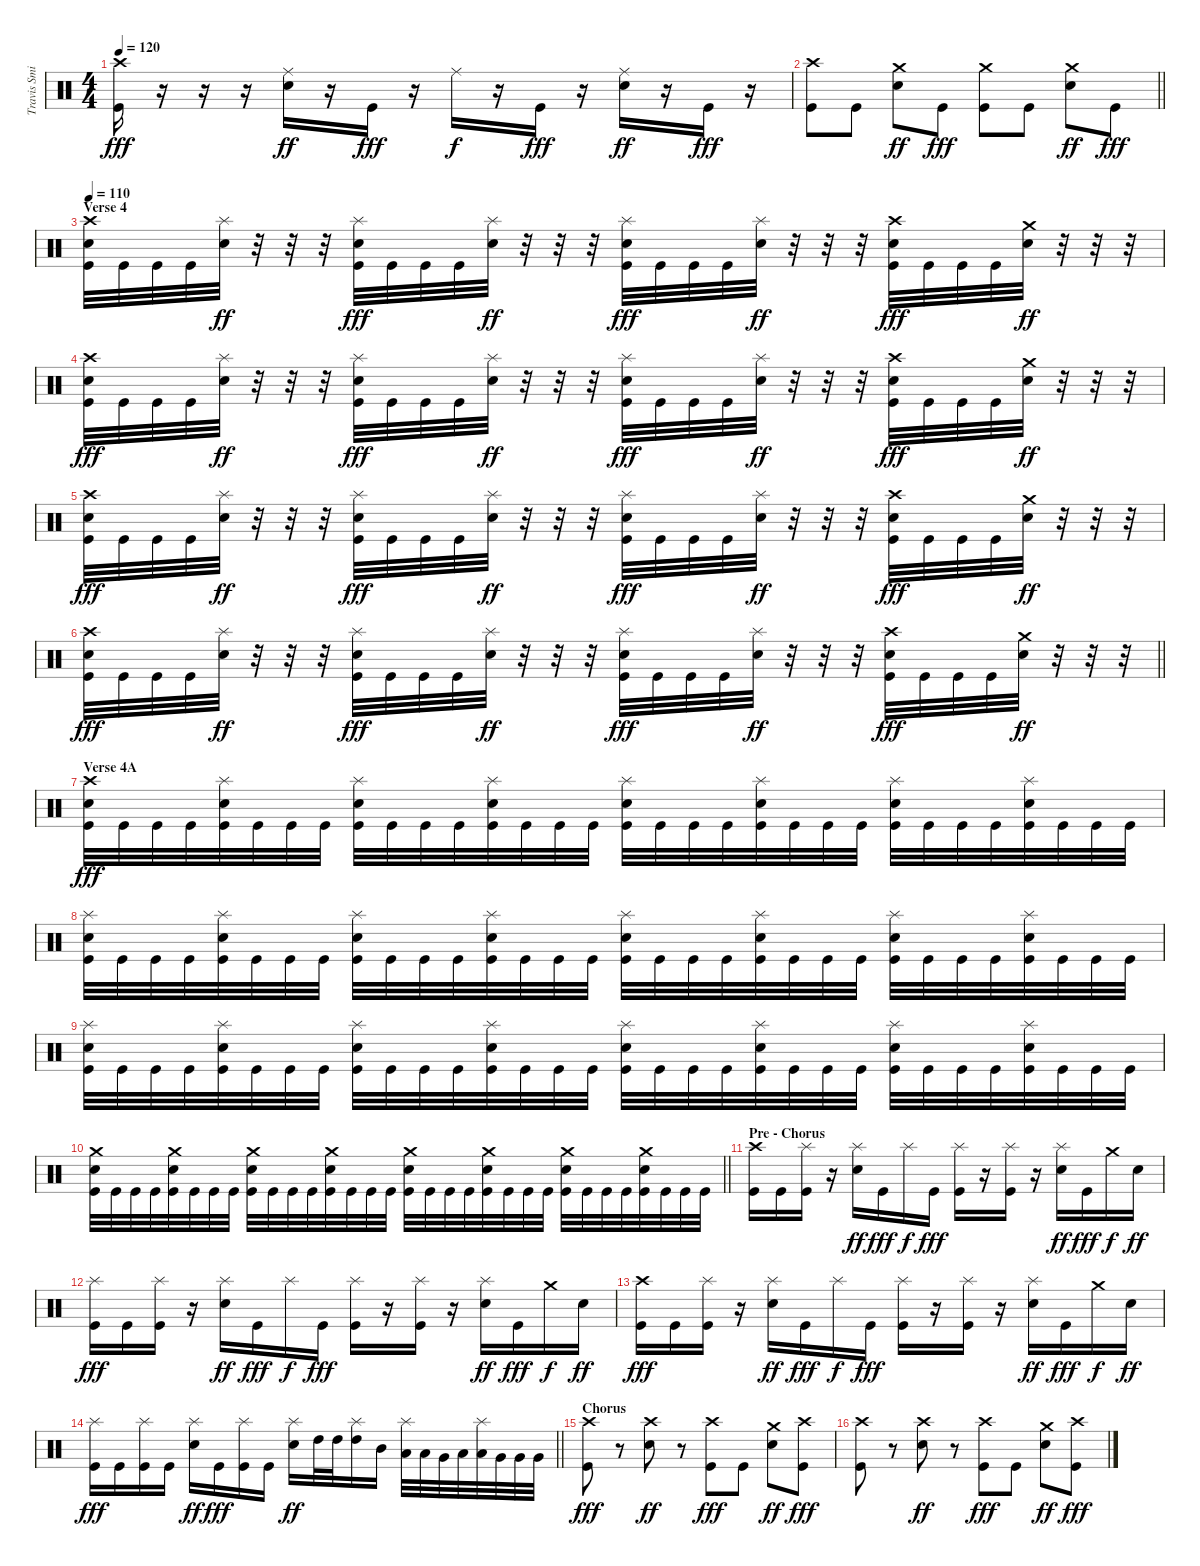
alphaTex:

\track ("Travis Smith" "Travis Smi") {instrument percussion}
\staff {score}
\articulation defaults
\ts (4 4)
\tempo 120
\clef neutral
\ks c
("Crash high (hit)" "Kick (hit)").16{dy fff} r.16 r.16 r.16 ("Ride (middle)" "Electric Snare (hit)").16{dy ff} r.16 "Kick (hit)".16{dy fff} r.16 "Ride (middle)".16{dy f} r.16 "Kick (hit)".16{dy fff} r.16 ("Ride (middle)" "Electric Snare (hit)").16{dy ff} r.16 "Kick (hit)".16{dy fff} r.16 |
\barLineRight lightlight
("Crash high (hit)" "Kick (hit)").8 "Kick (hit)".8 ("Crash medium (hit)" "Electric Snare (hit)").8{dy ff} "Kick (hit)".8{dy fff} ("Crash medium (hit)" "Kick (hit)").8 "Kick (hit)".8 ("Crash medium (hit)" "Electric Snare (hit)").8{dy ff} "Kick (hit)".8{dy fff} |
\section ("" "Verse 4")
\tempo 110
("Crash high (hit)" "Electric Snare (hit)" "Kick (hit)").32 "Kick (hit)".32 "Kick (hit)".32 "Kick (hit)".32 ("Splash (hit)" "Electric Snare (hit)").32{dy ff} r.32 r.32 r.32 ("Splash (hit)" "Electric Snare (hit)" "Kick (hit)").32{dy fff} "Kick (hit)".32 "Kick (hit)".32 "Kick (hit)".32 ("Splash (hit)" "Electric Snare (hit)").32{dy ff} r.32 r.32 r.32 ("Splash (hit)" "Electric Snare (hit)" "Kick (hit)").32{dy fff} "Kick (hit)".32 "Kick (hit)".32 "Kick (hit)".32 ("Splash (hit)" "Electric Snare (hit)").32{dy ff} r.32 r.32 r.32 ("Crash high (hit)" "Electric Snare (hit)" "Kick (hit)").32{dy fff} "Kick (hit)".32 "Kick (hit)".32 "Kick (hit)".32 ("Crash medium (hit)" "Electric Snare (hit)").32{dy ff} r.32 r.32 r.32 |
("Crash high (hit)" "Electric Snare (hit)" "Kick (hit)").32{dy fff} "Kick (hit)".32 "Kick (hit)".32 "Kick (hit)".32 ("Splash (hit)" "Electric Snare (hit)").32{dy ff} r.32 r.32 r.32 ("Splash (hit)" "Electric Snare (hit)" "Kick (hit)").32{dy fff} "Kick (hit)".32 "Kick (hit)".32 "Kick (hit)".32 ("Splash (hit)" "Electric Snare (hit)").32{dy ff} r.32 r.32 r.32 ("Splash (hit)" "Electric Snare (hit)" "Kick (hit)").32{dy fff} "Kick (hit)".32 "Kick (hit)".32 "Kick (hit)".32 ("Splash (hit)" "Electric Snare (hit)").32{dy ff} r.32 r.32 r.32 ("Crash high (hit)" "Electric Snare (hit)" "Kick (hit)").32{dy fff} "Kick (hit)".32 "Kick (hit)".32 "Kick (hit)".32 ("Crash medium (hit)" "Electric Snare (hit)").32{dy ff} r.32 r.32 r.32 |
("Crash high (hit)" "Electric Snare (hit)" "Kick (hit)").32{dy fff} "Kick (hit)".32 "Kick (hit)".32 "Kick (hit)".32 ("Splash (hit)" "Electric Snare (hit)").32{dy ff} r.32 r.32 r.32 ("Splash (hit)" "Electric Snare (hit)" "Kick (hit)").32{dy fff} "Kick (hit)".32 "Kick (hit)".32 "Kick (hit)".32 ("Splash (hit)" "Electric Snare (hit)").32{dy ff} r.32 r.32 r.32 ("Splash (hit)" "Electric Snare (hit)" "Kick (hit)").32{dy fff} "Kick (hit)".32 "Kick (hit)".32 "Kick (hit)".32 ("Splash (hit)" "Electric Snare (hit)").32{dy ff} r.32 r.32 r.32 ("Crash high (hit)" "Electric Snare (hit)" "Kick (hit)").32{dy fff} "Kick (hit)".32 "Kick (hit)".32 "Kick (hit)".32 ("Crash medium (hit)" "Electric Snare (hit)").32{dy ff} r.32 r.32 r.32 |
\barLineRight lightlight
("Crash high (hit)" "Electric Snare (hit)" "Kick (hit)").32{dy fff} "Kick (hit)".32 "Kick (hit)".32 "Kick (hit)".32 ("Splash (hit)" "Electric Snare (hit)").32{dy ff} r.32 r.32 r.32 ("Splash (hit)" "Electric Snare (hit)" "Kick (hit)").32{dy fff} "Kick (hit)".32 "Kick (hit)".32 "Kick (hit)".32 ("Splash (hit)" "Electric Snare (hit)").32{dy ff} r.32 r.32 r.32 ("Splash (hit)" "Electric Snare (hit)" "Kick (hit)").32{dy fff} "Kick (hit)".32 "Kick (hit)".32 "Kick (hit)".32 ("Splash (hit)" "Electric Snare (hit)").32{dy ff} r.32 r.32 r.32 ("Crash high (hit)" "Electric Snare (hit)" "Kick (hit)").32{dy fff} "Kick (hit)".32 "Kick (hit)".32 "Kick (hit)".32 ("Crash medium (hit)" "Electric Snare (hit)").32{dy ff} r.32 r.32 r.32 |
\section ("" "Verse 4A")
("Crash high (hit)" "Electric Snare (hit)" "Kick (hit)").32{dy fff} "Kick (hit)".32 "Kick (hit)".32 "Kick (hit)".32 ("Splash (hit)" "Electric Snare (hit)" "Kick (hit)").32 "Kick (hit)".32 "Kick (hit)".32 "Kick (hit)".32 ("Splash (hit)" "Electric Snare (hit)" "Kick (hit)").32 "Kick (hit)".32 "Kick (hit)".32 "Kick (hit)".32 ("Splash (hit)" "Electric Snare (hit)" "Kick (hit)").32 "Kick (hit)".32 "Kick (hit)".32 "Kick (hit)".32 ("Splash (hit)" "Electric Snare (hit)" "Kick (hit)").32 "Kick (hit)".32 "Kick (hit)".32 "Kick (hit)".32 ("Splash (hit)" "Electric Snare (hit)" "Kick (hit)").32 "Kick (hit)".32 "Kick (hit)".32 "Kick (hit)".32 ("Splash (hit)" "Electric Snare (hit)" "Kick (hit)").32 "Kick (hit)".32 "Kick (hit)".32 "Kick (hit)".32 ("Splash (hit)" "Electric Snare (hit)" "Kick (hit)").32 "Kick (hit)".32 "Kick (hit)".32 "Kick (hit)".32 |
("Splash (hit)" "Electric Snare (hit)" "Kick (hit)").32 "Kick (hit)".32 "Kick (hit)".32 "Kick (hit)".32 ("Splash (hit)" "Electric Snare (hit)" "Kick (hit)").32 "Kick (hit)".32 "Kick (hit)".32 "Kick (hit)".32 ("Splash (hit)" "Electric Snare (hit)" "Kick (hit)").32 "Kick (hit)".32 "Kick (hit)".32 "Kick (hit)".32 ("Splash (hit)" "Electric Snare (hit)" "Kick (hit)").32 "Kick (hit)".32 "Kick (hit)".32 "Kick (hit)".32 ("Splash (hit)" "Electric Snare (hit)" "Kick (hit)").32 "Kick (hit)".32 "Kick (hit)".32 "Kick (hit)".32 ("Splash (hit)" "Electric Snare (hit)" "Kick (hit)").32 "Kick (hit)".32 "Kick (hit)".32 "Kick (hit)".32 ("Splash (hit)" "Electric Snare (hit)" "Kick (hit)").32 "Kick (hit)".32 "Kick (hit)".32 "Kick (hit)".32 ("Splash (hit)" "Electric Snare (hit)" "Kick (hit)").32 "Kick (hit)".32 "Kick (hit)".32 "Kick (hit)".32 |
("Splash (hit)" "Electric Snare (hit)" "Kick (hit)").32 "Kick (hit)".32 "Kick (hit)".32 "Kick (hit)".32 ("Splash (hit)" "Electric Snare (hit)" "Kick (hit)").32 "Kick (hit)".32 "Kick (hit)".32 "Kick (hit)".32 ("Splash (hit)" "Electric Snare (hit)" "Kick (hit)").32 "Kick (hit)".32 "Kick (hit)".32 "Kick (hit)".32 ("Splash (hit)" "Electric Snare (hit)" "Kick (hit)").32 "Kick (hit)".32 "Kick (hit)".32 "Kick (hit)".32 ("Splash (hit)" "Electric Snare (hit)" "Kick (hit)").32 "Kick (hit)".32 "Kick (hit)".32 "Kick (hit)".32 ("Splash (hit)" "Electric Snare (hit)" "Kick (hit)").32 "Kick (hit)".32 "Kick (hit)".32 "Kick (hit)".32 ("Splash (hit)" "Electric Snare (hit)" "Kick (hit)").32 "Kick (hit)".32 "Kick (hit)".32 "Kick (hit)".32 ("Splash (hit)" "Electric Snare (hit)" "Kick (hit)").32 "Kick (hit)".32 "Kick (hit)".32 "Kick (hit)".32 |
\barLineRight lightlight
("Crash medium (hit)" "Electric Snare (hit)" "Kick (hit)").32 "Kick (hit)".32 "Kick (hit)".32 "Kick (hit)".32 ("Crash medium (hit)" "Electric Snare (hit)" "Kick (hit)").32 "Kick (hit)".32 "Kick (hit)".32 "Kick (hit)".32 ("Crash medium (hit)" "Electric Snare (hit)" "Kick (hit)").32 "Kick (hit)".32 "Kick (hit)".32 "Kick (hit)".32 ("Crash medium (hit)" "Electric Snare (hit)" "Kick (hit)").32 "Kick (hit)".32 "Kick (hit)".32 "Kick (hit)".32 ("Crash medium (hit)" "Electric Snare (hit)" "Kick (hit)").32 "Kick (hit)".32 "Kick (hit)".32 "Kick (hit)".32 ("Crash medium (hit)" "Electric Snare (hit)" "Kick (hit)").32 "Kick (hit)".32 "Kick (hit)".32 "Kick (hit)".32 ("Crash medium (hit)" "Electric Snare (hit)" "Kick (hit)").32 "Kick (hit)".32 "Kick (hit)".32 "Kick (hit)".32 ("Crash medium (hit)" "Electric Snare (hit)" "Kick (hit)").32 "Kick (hit)".32 "Kick (hit)".32 "Kick (hit)".32 |
\section ("" "Pre - Chorus")
("Crash high (hit)" "Kick (hit)").16 "Kick (hit)".16 ("Splash (hit)" "Kick (hit)").16 r.16 ("Splash (hit)" "Electric Snare (hit)").16{dy ff} "Kick (hit)".16{dy fff} "Splash (hit)".16{dy f} "Kick (hit)".16{dy fff} ("Splash (hit)" "Kick (hit)").16 r.16 ("Splash (hit)" "Kick (hit)").16 r.16 ("Splash (hit)" "Electric Snare (hit)").16{dy ff} "Kick (hit)".16{dy fff} "Crash medium (hit)".16{dy f} "Electric Snare (hit)".16{dy ff} |
("Splash (hit)" "Kick (hit)").16{dy fff} "Kick (hit)".16 ("Splash (hit)" "Kick (hit)").16 r.16 ("Splash (hit)" "Electric Snare (hit)").16{dy ff} "Kick (hit)".16{dy fff} "Splash (hit)".16{dy f} "Kick (hit)".16{dy fff} ("Splash (hit)" "Kick (hit)").16 r.16 ("Splash (hit)" "Kick (hit)").16 r.16 ("Splash (hit)" "Electric Snare (hit)").16{dy ff} "Kick (hit)".16{dy fff} "Crash medium (hit)".16{dy f} "Electric Snare (hit)".16{dy ff} |
("Crash high (hit)" "Kick (hit)").16{dy fff} "Kick (hit)".16 ("Splash (hit)" "Kick (hit)").16 r.16 ("Splash (hit)" "Electric Snare (hit)").16{dy ff} "Kick (hit)".16{dy fff} "Splash (hit)".16{dy f} "Kick (hit)".16{dy fff} ("Splash (hit)" "Kick (hit)").16 r.16 ("Splash (hit)" "Kick (hit)").16 r.16 ("Splash (hit)" "Electric Snare (hit)").16{dy ff} "Kick (hit)".16{dy fff} "Crash medium (hit)".16{dy f} "Electric Snare (hit)".16{dy ff} |
\barLineRight lightlight
("Splash (hit)" "Kick (hit)").16{dy fff} "Kick (hit)".16 ("Splash (hit)" "Kick (hit)").16 "Kick (hit)".16 ("Splash (hit)" "Electric Snare (hit)").16{dy ff} "Kick (hit)".16{dy fff} ("Splash (hit)" "Kick (hit)").16 "Kick (hit)".16 ("Splash (hit)" "Electric Snare (hit)").16{dy ff} "High Tom (hit)".32 "High Tom (hit)".32 ("Splash (hit)" "High Tom (hit)").16 "Mid Tom (hit)".16 ("Splash (hit)" "Low Tom (hit)").32 "Low Tom (hit)".32 "Very Low Tom (hit)".32 "Low Floor Tom (hit)".32 ("Splash (hit)" "Low Floor Tom (hit)").32 "Very Low Tom (hit)".32 "Very Low Tom (hit)".32 "Very Low Tom (hit)".32 |
\section ("" "Chorus")
("Crash high (hit)" "Kick (hit)").8{dy fff} r.8 ("Crash high (hit)" "Electric Snare (hit)").8{dy ff} r.8 ("Crash high (hit)" "Kick (hit)").8{dy fff} "Kick (hit)".8 ("Crash medium (hit)" "Electric Snare (hit)").8{dy ff} ("Crash high (hit)" "Kick (hit)").8{dy fff} |
("Crash high (hit)" "Kick (hit)").8 r.8 ("Crash high (hit)" "Electric Snare (hit)").8{dy ff} r.8 ("Crash high (hit)" "Kick (hit)").8{dy fff} "Kick (hit)".8 ("Crash medium (hit)" "Electric Snare (hit)").8{dy ff} ("Crash high (hit)" "Kick (hit)").8{dy fff}
